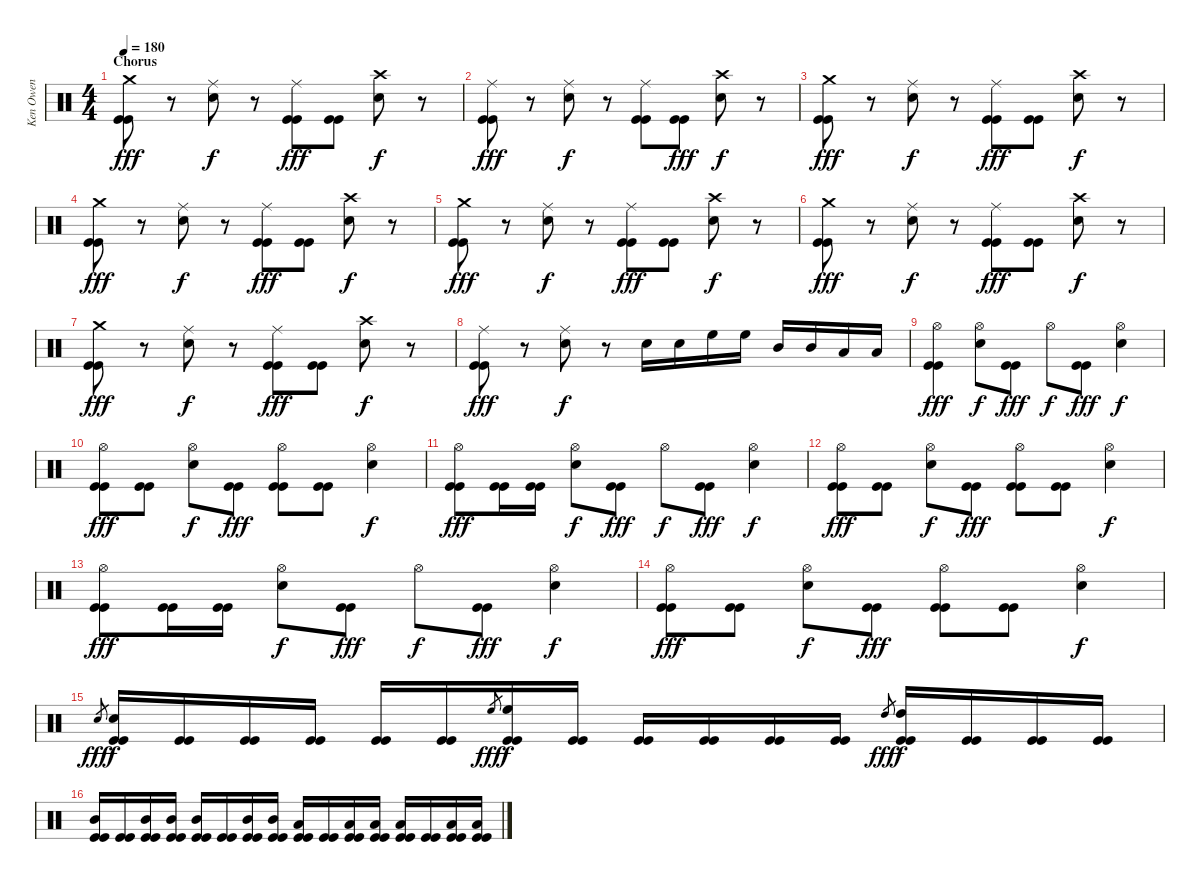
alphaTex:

\track ("Ken Owen" "Ken Owen") {instrument percussion}
\staff {score}
\articulation defaults
\ts (4 4)
\section ("" "Chorus")
\tempo 180
\clef neutral
\ks c
("Crash medium (hit)" "Kick (hit)" "Kick (hit)").8{dy fff} r.8 ("Ride (middle)" "Snare (hit) 2").8{dy f} r.8 ("Ride (middle)" "Kick (hit)" "Kick (hit)").8{dy fff} ("Kick (hit)" "Kick (hit)").8 ("Crash high (hit)" "Snare (hit) 2").8{dy f} r.8 |
("Ride (middle)" "Kick (hit)" "Kick (hit)").8{dy fff} r.8 ("Ride (middle)" "Snare (hit) 2").8{dy f} r.8 ("Ride (middle)" "Kick (hit)" "Kick (hit)").8 ("Kick (hit)" "Kick (hit)").8{dy fff} ("Crash high (hit)" "Snare (hit) 2").8{dy f} r.8 |
("Crash medium (hit)" "Kick (hit)" "Kick (hit)").8{dy fff} r.8 ("Ride (middle)" "Snare (hit) 2").8{dy f} r.8 ("Ride (middle)" "Kick (hit)" "Kick (hit)").8{dy fff} ("Kick (hit)" "Kick (hit)").8 ("Crash high (hit)" "Snare (hit) 2").8{dy f} r.8 |
("Crash medium (hit)" "Kick (hit)" "Kick (hit)").8{dy fff} r.8 ("Ride (middle)" "Snare (hit) 2").8{dy f} r.8 ("Ride (middle)" "Kick (hit)" "Kick (hit)").8{dy fff} ("Kick (hit)" "Kick (hit)").8 ("Crash high (hit)" "Snare (hit) 2").8{dy f} r.8 |
("Crash medium (hit)" "Kick (hit)" "Kick (hit)").8{dy fff} r.8 ("Ride (middle)" "Snare (hit) 2").8{dy f} r.8 ("Ride (middle)" "Kick (hit)" "Kick (hit)").8{dy fff} ("Kick (hit)" "Kick (hit)").8 ("Crash high (hit)" "Snare (hit) 2").8{dy f} r.8 |
("Crash medium (hit)" "Kick (hit)" "Kick (hit)").8{dy fff} r.8 ("Ride (middle)" "Snare (hit) 2").8{dy f} r.8 ("Ride (middle)" "Kick (hit)" "Kick (hit)").8{dy fff} ("Kick (hit)" "Kick (hit)").8 ("Crash high (hit)" "Snare (hit) 2").8{dy f} r.8 |
("Crash medium (hit)" "Kick (hit)" "Kick (hit)").8{dy fff} r.8 ("Ride (middle)" "Snare (hit) 2").8{dy f} r.8 ("Ride (middle)" "Kick (hit)" "Kick (hit)").8{dy fff} ("Kick (hit)" "Kick (hit)").8 ("Crash high (hit)" "Snare (hit) 2").8{dy f} r.8 |
("Ride (middle)" "Kick (hit)" "Kick (hit)").8{dy fff} r.8 ("Ride (middle)" "Snare (hit) 2").8{dy f} r.8 "Snare (hit) 2".16 "Snare (hit) 2".16 "High Floor Tom (hit)".16 "High Floor Tom (hit)".16 "Mid Tom (hit)".16 "Mid Tom (hit)".16 "Low Tom (hit)".16 "Low Tom (hit)".16 |
("Hi-Hat (open)" "Kick (hit)" "Kick (hit)").4{dy fff} ("Hi-Hat (open)" "Snare (hit) 2").8{dy f} ("Kick (hit)" "Kick (hit)").8{dy fff} "Hi-Hat (open)".8{dy f} ("Kick (hit)" "Kick (hit)").8{dy fff} ("Hi-Hat (open)" "Snare (hit) 2").4{dy f} |
("Hi-Hat (open)" "Kick (hit)" "Kick (hit)").8{dy fff} ("Kick (hit)" "Kick (hit)").8 ("Hi-Hat (open)" "Snare (hit) 2").8{dy f} ("Kick (hit)" "Kick (hit)").8{dy fff} ("Hi-Hat (open)" "Kick (hit)" "Kick (hit)").8 ("Kick (hit)" "Kick (hit)").8 ("Hi-Hat (open)" "Snare (hit) 2").4{dy f} |
("Hi-Hat (open)" "Kick (hit)" "Kick (hit)").8{dy fff} ("Kick (hit)" "Kick (hit)").16 ("Kick (hit)" "Kick (hit)").16 ("Hi-Hat (open)" "Snare (hit) 2").8{dy f} ("Kick (hit)" "Kick (hit)").8{dy fff} "Hi-Hat (open)".8{dy f} ("Kick (hit)" "Kick (hit)").8{dy fff} ("Hi-Hat (open)" "Snare (hit) 2").4{dy f} |
("Hi-Hat (open)" "Kick (hit)" "Kick (hit)").8{dy fff} ("Kick (hit)" "Kick (hit)").8 ("Hi-Hat (open)" "Snare (hit) 2").8{dy f} ("Kick (hit)" "Kick (hit)").8{dy fff} ("Hi-Hat (open)" "Kick (hit)" "Kick (hit)").8 ("Kick (hit)" "Kick (hit)").8 ("Hi-Hat (open)" "Snare (hit) 2").4{dy f} |
("Hi-Hat (open)" "Kick (hit)" "Kick (hit)").8{dy fff} ("Kick (hit)" "Kick (hit)").16 ("Kick (hit)" "Kick (hit)").16 ("Hi-Hat (open)" "Snare (hit) 2").8{dy f} ("Kick (hit)" "Kick (hit)").8{dy fff} "Hi-Hat (open)".8{dy f} ("Kick (hit)" "Kick (hit)").8{dy fff} ("Hi-Hat (open)" "Snare (hit) 2").4{dy f} |
("Hi-Hat (open)" "Kick (hit)" "Kick (hit)").8{dy fff} ("Kick (hit)" "Kick (hit)").8 ("Hi-Hat (open)" "Snare (hit) 2").8{dy f} ("Kick (hit)" "Kick (hit)").8{dy fff} ("Hi-Hat (open)" "Kick (hit)" "Kick (hit)").8 ("Kick (hit)" "Kick (hit)").8 ("Hi-Hat (open)" "Snare (hit) 2").4{dy f} |
"Snare (hit) 2".8{gr dy fff} ("Snare (hit) 2" "Kick (hit)" "Kick (hit)").16{dy f} ("Kick (hit)" "Kick (hit)").16 ("Kick (hit)" "Kick (hit)").16 ("Kick (hit)" "Kick (hit)").16 ("Kick (hit)" "Kick (hit)").16 ("Kick (hit)" "Kick (hit)").16 "High Floor Tom (hit)".8{gr dy fff} ("High Floor Tom (hit)" "Kick (hit)" "Kick (hit)").16{dy f} ("Kick (hit)" "Kick (hit)").16 ("Kick (hit)" "Kick (hit)").16 ("Kick (hit)" "Kick (hit)").16 ("Kick (hit)" "Kick (hit)").16 ("Kick (hit)" "Kick (hit)").16 "High Tom (hit)".8{gr dy fff} ("High Tom (hit)" "Kick (hit)" "Kick (hit)").16{dy f} ("Kick (hit)" "Kick (hit)").16 ("Kick (hit)" "Kick (hit)").16 ("Kick (hit)" "Kick (hit)").16 |
("Mid Tom (hit)" "Kick (hit)" "Kick (hit)").16 ("Kick (hit)" "Kick (hit)").16 ("Mid Tom (hit)" "Kick (hit)" "Kick (hit)").16 ("Mid Tom (hit)" "Kick (hit)" "Kick (hit)").16 ("Mid Tom (hit)" "Kick (hit)" "Kick (hit)").16 ("Kick (hit)" "Kick (hit)").16 ("Mid Tom (hit)" "Kick (hit)" "Kick (hit)").16 ("Mid Tom (hit)" "Kick (hit)" "Kick (hit)").16 ("Low Tom (hit)" "Kick (hit)" "Kick (hit)").16 ("Kick (hit)" "Kick (hit)").16 ("Low Tom (hit)" "Kick (hit)" "Kick (hit)").16 ("Low Tom (hit)" "Kick (hit)" "Kick (hit)").16 ("Low Tom (hit)" "Kick (hit)" "Kick (hit)").16 ("Kick (hit)" "Kick (hit)").16 ("Low Tom (hit)" "Kick (hit)" "Kick (hit)").16 ("Low Tom (hit)" "Kick (hit)" "Kick (hit)").16
